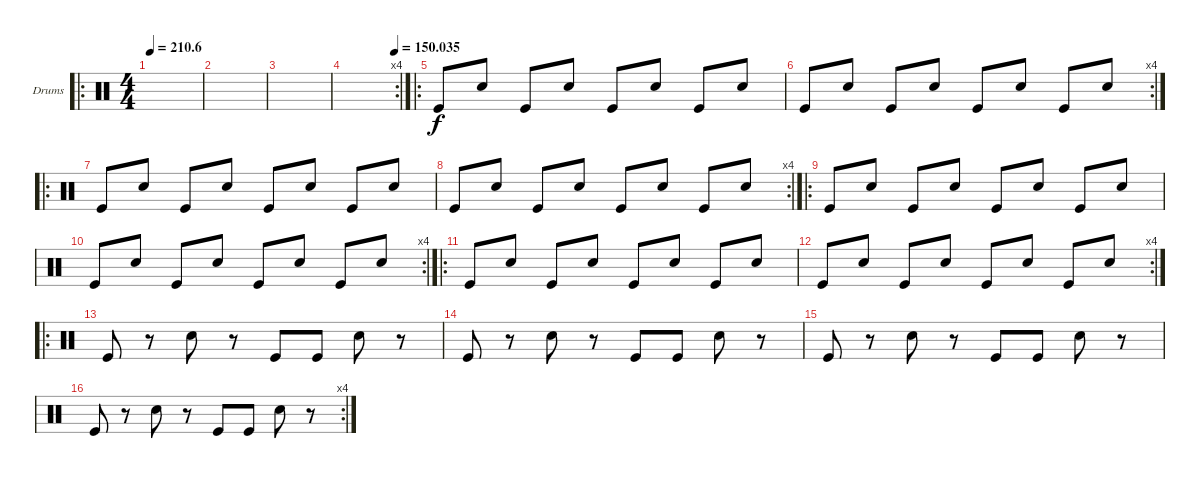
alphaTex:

\defaultSystemsLayout 4
\bracketExtendMode groupsimilarinstruments
\firstSystemTrackNameOrientation horizontal
\otherSystemsTrackNameOrientation horizontal
\track ("Drumkit" "Drums") {instrument percussion}
\staff {score}
\articulation defaults
\ro
\ts (4 4)
\tempo
210.6
\accidentals auto
\clef neutral
\ottava regular
\simile none
\scale
0.502222
\ks c
|
\scale
0.248889 |
\scale
0.248889 |
\rc 4
\tempo (150.035 1)
\scale
0.322917 |
\ro
\scale
0.354167 "Kick (hit)".8 "Snare (hit) 2".8 "Kick (hit)".8 "Snare (hit) 2".8 "Kick (hit)".8 "Snare (hit) 2".8 "Kick (hit)".8 "Snare (hit) 2".8 |
\rc 4
\scale
0.322917 "Kick (hit)".8 "Snare (hit) 2".8 "Kick (hit)".8 "Snare (hit) 2".8 "Kick (hit)".8 "Snare (hit) 2".8 "Kick (hit)".8 "Snare (hit) 2".8 |
\ro
\scale
0.343434 "Kick (hit)".8 "Snare (hit) 2".8 "Kick (hit)".8 "Snare (hit) 2".8 "Kick (hit)".8 "Snare (hit) 2".8 "Kick (hit)".8 "Snare (hit) 2".8 |
\rc 4
\scale
0.313131 "Kick (hit)".8 "Snare (hit) 2".8 "Kick (hit)".8 "Snare (hit) 2".8 "Kick (hit)".8 "Snare (hit) 2".8 "Kick (hit)".8 "Snare (hit) 2".8 |
\ro
\scale
0.343434 "Kick (hit)".8 "Snare (hit) 2".8 "Kick (hit)".8 "Snare (hit) 2".8 "Kick (hit)".8 "Snare (hit) 2".8 "Kick (hit)".8 "Snare (hit) 2".8 |
\rc 4
\scale
0.322917 "Kick (hit)".8 "Snare (hit) 2".8 "Kick (hit)".8 "Snare (hit) 2".8 "Kick (hit)".8 "Snare (hit) 2".8 "Kick (hit)".8 "Snare (hit) 2".8 |
\ro
\scale
0.354167 "Kick (hit)".8 "Snare (hit) 2".8 "Kick (hit)".8 "Snare (hit) 2".8 "Kick (hit)".8 "Snare (hit) 2".8 "Kick (hit)".8 "Snare (hit) 2".8 |
\rc 4
\scale
0.322917 "Kick (hit)".8 "Snare (hit) 2".8 "Kick (hit)".8 "Snare (hit) 2".8 "Kick (hit)".8 "Snare (hit) 2".8 "Kick (hit)".8 "Snare (hit) 2".8 |
\ro
\scale
0.377778 "Kick (hit)".8 r.8 "Snare (hit) 2".8 r.8 "Kick (hit)".8 "Kick (hit)".8 "Snare (hit) 2".8 r.8 |
\scale
0.311111 "Kick (hit)".8 r.8 "Snare (hit) 2".8 r.8 "Kick (hit)".8 "Kick (hit)".8 "Snare (hit) 2".8 r.8 |
\scale
0.311111 "Kick (hit)".8 r.8 "Snare (hit) 2".8 r.8 "Kick (hit)".8 "Kick (hit)".8 "Snare (hit) 2".8 r.8 |
\rc 4
\scale
0.322917 "Kick (hit)".8 r.8 "Snare (hit) 2".8 r.8 "Kick (hit)".8 "Kick (hit)".8 "Snare (hit) 2".8 r.8
